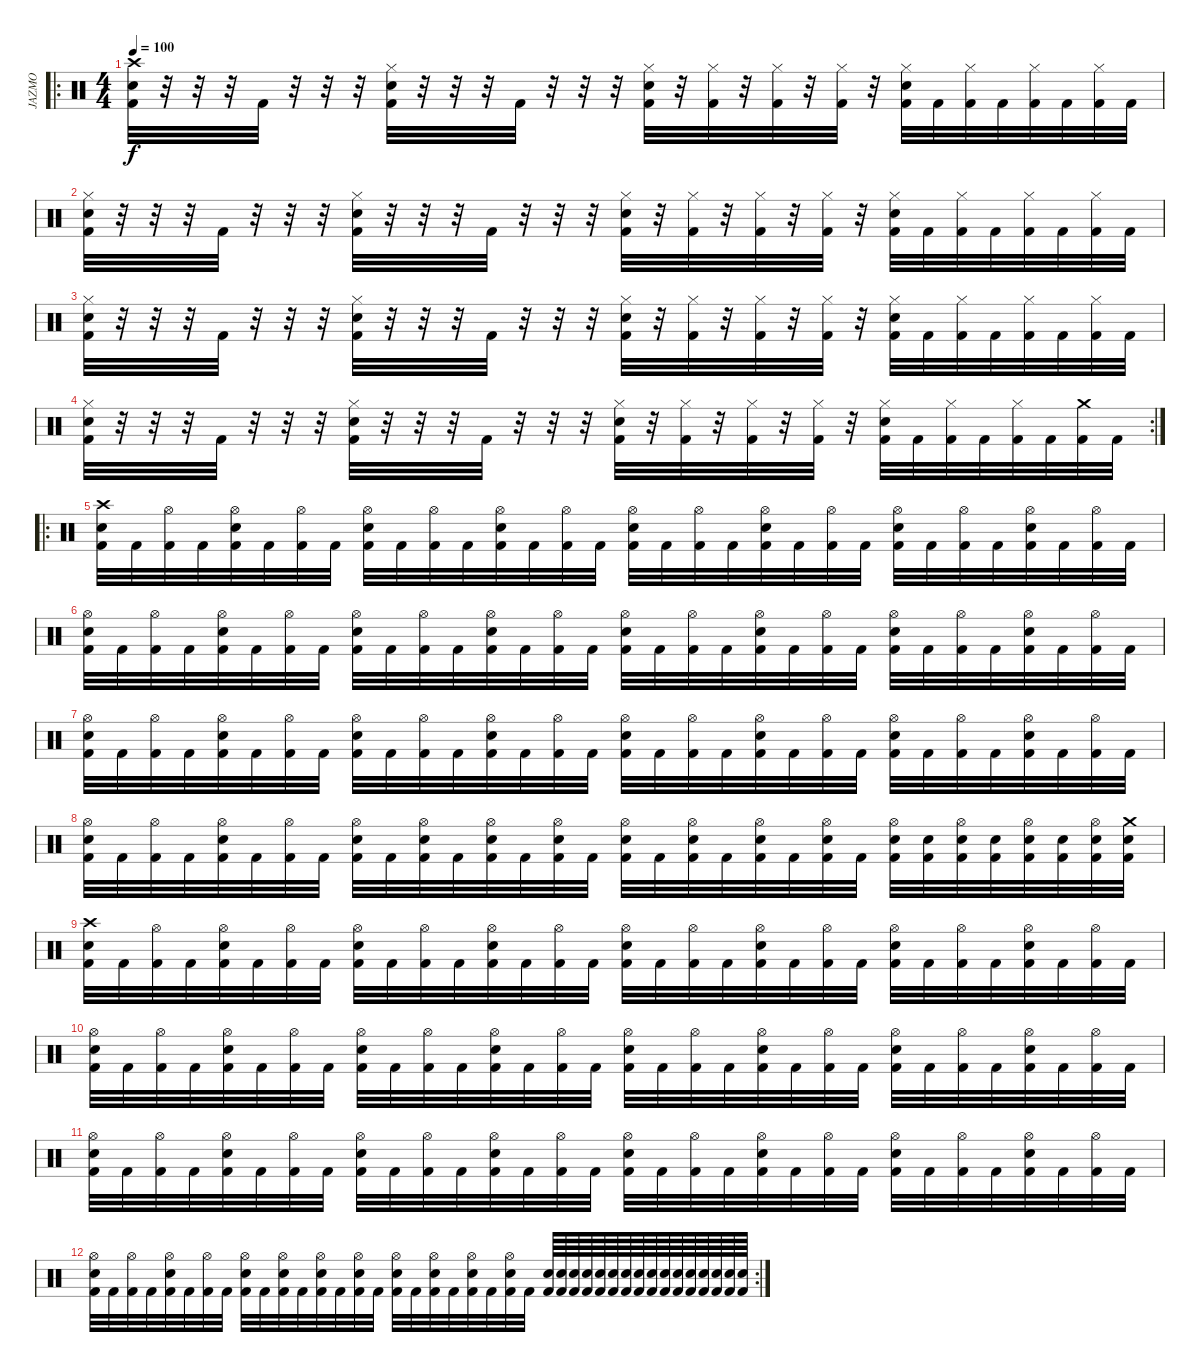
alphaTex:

\track ("JAZMO" "JAZMO") {instrument percussion}
\staff {score}
\articulation defaults
\ro
\ts (4 4)
\tempo 100
\clef neutral
\ks c
("Crash high (hit)" "Electric Snare (hit)" "Kick (hit) 2").32{dy f} r.32 r.32 r.32 "Kick (hit) 2".32 r.32 r.32 r.32 ("Hi-Hat (closed)" "Electric Snare (hit)" "Kick (hit) 2").32 r.32 r.32 r.32 "Kick (hit) 2".32 r.32 r.32 r.32 ("Hi-Hat (closed)" "Electric Snare (hit)" "Kick (hit) 2").32 r.32 ("Hi-Hat (closed)" "Kick (hit) 2").32 r.32 ("Hi-Hat (closed)" "Kick (hit) 2").32 r.32 ("Hi-Hat (closed)" "Kick (hit) 2").32 r.32 ("Hi-Hat (closed)" "Electric Snare (hit)" "Kick (hit) 2").32 "Kick (hit) 2".32 ("Hi-Hat (closed)" "Kick (hit) 2").32 "Kick (hit) 2".32 ("Hi-Hat (closed)" "Kick (hit) 2").32 "Kick (hit) 2".32 ("Hi-Hat (closed)" "Kick (hit) 2").32 "Kick (hit) 2".32 |
("Hi-Hat (closed)" "Electric Snare (hit)" "Kick (hit) 2").32 r.32 r.32 r.32 "Kick (hit) 2".32 r.32 r.32 r.32 ("Hi-Hat (closed)" "Electric Snare (hit)" "Kick (hit) 2").32 r.32 r.32 r.32 "Kick (hit) 2".32 r.32 r.32 r.32 ("Hi-Hat (closed)" "Electric Snare (hit)" "Kick (hit) 2").32 r.32 ("Hi-Hat (closed)" "Kick (hit) 2").32 r.32 ("Hi-Hat (closed)" "Kick (hit) 2").32 r.32 ("Hi-Hat (closed)" "Kick (hit) 2").32 r.32 ("Hi-Hat (closed)" "Electric Snare (hit)" "Kick (hit) 2").32 "Kick (hit) 2".32 ("Hi-Hat (closed)" "Kick (hit) 2").32 "Kick (hit) 2".32 ("Hi-Hat (closed)" "Kick (hit) 2").32 "Kick (hit) 2".32 ("Hi-Hat (closed)" "Kick (hit) 2").32 "Kick (hit) 2".32 |
("Hi-Hat (closed)" "Electric Snare (hit)" "Kick (hit) 2").32 r.32 r.32 r.32 "Kick (hit) 2".32 r.32 r.32 r.32 ("Hi-Hat (closed)" "Electric Snare (hit)" "Kick (hit) 2").32 r.32 r.32 r.32 "Kick (hit) 2".32 r.32 r.32 r.32 ("Hi-Hat (closed)" "Electric Snare (hit)" "Kick (hit) 2").32 r.32 ("Hi-Hat (closed)" "Kick (hit) 2").32 r.32 ("Hi-Hat (closed)" "Kick (hit) 2").32 r.32 ("Hi-Hat (closed)" "Kick (hit) 2").32 r.32 ("Hi-Hat (closed)" "Electric Snare (hit)" "Kick (hit) 2").32 "Kick (hit) 2".32 ("Hi-Hat (closed)" "Kick (hit) 2").32 "Kick (hit) 2".32 ("Hi-Hat (closed)" "Kick (hit) 2").32 "Kick (hit) 2".32 ("Hi-Hat (closed)" "Kick (hit) 2").32 "Kick (hit) 2".32 |
\rc 2
("Hi-Hat (closed)" "Electric Snare (hit)" "Kick (hit) 2").32 r.32 r.32 r.32 "Kick (hit) 2".32 r.32 r.32 r.32 ("Hi-Hat (closed)" "Electric Snare (hit)" "Kick (hit) 2").32 r.32 r.32 r.32 "Kick (hit) 2".32 r.32 r.32 r.32 ("Hi-Hat (closed)" "Electric Snare (hit)" "Kick (hit) 2").32 r.32 ("Hi-Hat (closed)" "Kick (hit) 2").32 r.32 ("Hi-Hat (closed)" "Kick (hit) 2").32 r.32 ("Hi-Hat (closed)" "Kick (hit) 2").32 r.32 ("Hi-Hat (closed)" "Electric Snare (hit)" "Kick (hit) 2").32 "Kick (hit) 2".32 ("Hi-Hat (closed)" "Kick (hit) 2").32 "Kick (hit) 2".32 ("Hi-Hat (closed)" "Kick (hit) 2").32 "Kick (hit) 2".32 ("Crash medium (hit)" "Kick (hit) 2").32 "Kick (hit) 2".32 |
\ro
("Crash high (hit)" "Electric Snare (hit)" "Kick (hit) 2").32 "Kick (hit) 2".32 ("Hi-Hat (open)" "Kick (hit) 2").32 "Kick (hit) 2".32 ("Hi-Hat (open)" "Electric Snare (hit)" "Kick (hit) 2").32 "Kick (hit) 2".32 ("Hi-Hat (open)" "Kick (hit) 2").32 "Kick (hit) 2".32 ("Hi-Hat (open)" "Electric Snare (hit)" "Kick (hit) 2").32 "Kick (hit) 2".32 ("Hi-Hat (open)" "Kick (hit) 2").32 "Kick (hit) 2".32 ("Hi-Hat (open)" "Electric Snare (hit)" "Kick (hit) 2").32 "Kick (hit) 2".32 ("Hi-Hat (open)" "Kick (hit) 2").32 "Kick (hit) 2".32 ("Hi-Hat (open)" "Electric Snare (hit)" "Kick (hit) 2").32 "Kick (hit) 2".32 ("Hi-Hat (open)" "Kick (hit) 2").32 "Kick (hit) 2".32 ("Hi-Hat (open)" "Electric Snare (hit)" "Kick (hit) 2").32 "Kick (hit) 2".32 ("Hi-Hat (open)" "Kick (hit) 2").32 "Kick (hit) 2".32 ("Hi-Hat (open)" "Electric Snare (hit)" "Kick (hit) 2").32 "Kick (hit) 2".32 ("Hi-Hat (open)" "Kick (hit) 2").32 "Kick (hit) 2".32 ("Hi-Hat (open)" "Electric Snare (hit)" "Kick (hit) 2").32 "Kick (hit) 2".32 ("Hi-Hat (open)" "Kick (hit) 2").32 "Kick (hit) 2".32 |
("Hi-Hat (open)" "Electric Snare (hit)" "Kick (hit) 2").32 "Kick (hit) 2".32 ("Hi-Hat (open)" "Kick (hit) 2").32 "Kick (hit) 2".32 ("Hi-Hat (open)" "Electric Snare (hit)" "Kick (hit) 2").32 "Kick (hit) 2".32 ("Hi-Hat (open)" "Kick (hit) 2").32 "Kick (hit) 2".32 ("Hi-Hat (open)" "Electric Snare (hit)" "Kick (hit) 2").32 "Kick (hit) 2".32 ("Hi-Hat (open)" "Kick (hit) 2").32 "Kick (hit) 2".32 ("Hi-Hat (open)" "Electric Snare (hit)" "Kick (hit) 2").32 "Kick (hit) 2".32 ("Hi-Hat (open)" "Kick (hit) 2").32 "Kick (hit) 2".32 ("Hi-Hat (open)" "Electric Snare (hit)" "Kick (hit) 2").32 "Kick (hit) 2".32 ("Hi-Hat (open)" "Kick (hit) 2").32 "Kick (hit) 2".32 ("Hi-Hat (open)" "Electric Snare (hit)" "Kick (hit) 2").32 "Kick (hit) 2".32 ("Hi-Hat (open)" "Kick (hit) 2").32 "Kick (hit) 2".32 ("Hi-Hat (open)" "Electric Snare (hit)" "Kick (hit) 2").32 "Kick (hit) 2".32 ("Hi-Hat (open)" "Kick (hit) 2").32 "Kick (hit) 2".32 ("Hi-Hat (open)" "Electric Snare (hit)" "Kick (hit) 2").32 "Kick (hit) 2".32 ("Hi-Hat (open)" "Kick (hit) 2").32 "Kick (hit) 2".32 |
("Hi-Hat (open)" "Electric Snare (hit)" "Kick (hit) 2").32 "Kick (hit) 2".32 ("Hi-Hat (open)" "Kick (hit) 2").32 "Kick (hit) 2".32 ("Hi-Hat (open)" "Electric Snare (hit)" "Kick (hit) 2").32 "Kick (hit) 2".32 ("Hi-Hat (open)" "Kick (hit) 2").32 "Kick (hit) 2".32 ("Hi-Hat (open)" "Electric Snare (hit)" "Kick (hit) 2").32 "Kick (hit) 2".32 ("Hi-Hat (open)" "Kick (hit) 2").32 "Kick (hit) 2".32 ("Hi-Hat (open)" "Electric Snare (hit)" "Kick (hit) 2").32 "Kick (hit) 2".32 ("Hi-Hat (open)" "Kick (hit) 2").32 "Kick (hit) 2".32 ("Hi-Hat (open)" "Electric Snare (hit)" "Kick (hit) 2").32 "Kick (hit) 2".32 ("Hi-Hat (open)" "Kick (hit) 2").32 "Kick (hit) 2".32 ("Hi-Hat (open)" "Electric Snare (hit)" "Kick (hit) 2").32 "Kick (hit) 2".32 ("Hi-Hat (open)" "Kick (hit) 2").32 "Kick (hit) 2".32 ("Hi-Hat (open)" "Electric Snare (hit)" "Kick (hit) 2").32 "Kick (hit) 2".32 ("Hi-Hat (open)" "Kick (hit) 2").32 "Kick (hit) 2".32 ("Hi-Hat (open)" "Electric Snare (hit)" "Kick (hit) 2").32 "Kick (hit) 2".32 ("Hi-Hat (open)" "Kick (hit) 2").32 "Kick (hit) 2".32 |
("Hi-Hat (open)" "Electric Snare (hit)" "Kick (hit) 2").32 "Kick (hit) 2".32 ("Hi-Hat (open)" "Kick (hit) 2").32 "Kick (hit) 2".32 ("Hi-Hat (open)" "Electric Snare (hit)" "Kick (hit) 2").32 "Kick (hit) 2".32 ("Hi-Hat (open)" "Kick (hit) 2").32 "Kick (hit) 2".32 ("Hi-Hat (open)" "Electric Snare (hit)" "Kick (hit) 2").32 "Kick (hit) 2".32 ("Hi-Hat (open)" "Electric Snare (hit)" "Kick (hit) 2").32 "Kick (hit) 2".32 ("Hi-Hat (open)" "Electric Snare (hit)" "Kick (hit) 2").32 "Kick (hit) 2".32 ("Hi-Hat (open)" "Electric Snare (hit)" "Kick (hit) 2").32 "Kick (hit) 2".32 ("Hi-Hat (open)" "Electric Snare (hit)" "Kick (hit) 2").32 "Kick (hit) 2".32 ("Hi-Hat (open)" "Electric Snare (hit)" "Kick (hit) 2").32 "Kick (hit) 2".32 ("Hi-Hat (open)" "Electric Snare (hit)" "Kick (hit) 2").32 "Kick (hit) 2".32 ("Hi-Hat (open)" "Electric Snare (hit)" "Kick (hit) 2").32 "Kick (hit) 2".32 ("Hi-Hat (open)" "Electric Snare (hit)" "Kick (hit) 2").32 ("Electric Snare (hit)" "Kick (hit) 2").32 ("Hi-Hat (open)" "Electric Snare (hit)" "Kick (hit) 2").32 ("Electric Snare (hit)" "Kick (hit) 2").32 ("Hi-Hat (open)" "Electric Snare (hit)" "Kick (hit) 2").32 ("Electric Snare (hit)" "Kick (hit) 2").32 ("Hi-Hat (open)" "Electric Snare (hit)" "Kick (hit) 2").32 ("Crash medium (hit)" "Electric Snare (hit)" "Kick (hit) 2").32 |
("Crash high (hit)" "Electric Snare (hit)" "Kick (hit) 2").32 "Kick (hit) 2".32 ("Hi-Hat (open)" "Kick (hit) 2").32 "Kick (hit) 2".32 ("Hi-Hat (open)" "Electric Snare (hit)" "Kick (hit) 2").32 "Kick (hit) 2".32 ("Hi-Hat (open)" "Kick (hit) 2").32 "Kick (hit) 2".32 ("Hi-Hat (open)" "Electric Snare (hit)" "Kick (hit) 2").32 "Kick (hit) 2".32 ("Hi-Hat (open)" "Kick (hit) 2").32 "Kick (hit) 2".32 ("Hi-Hat (open)" "Electric Snare (hit)" "Kick (hit) 2").32 "Kick (hit) 2".32 ("Hi-Hat (open)" "Kick (hit) 2").32 "Kick (hit) 2".32 ("Hi-Hat (open)" "Electric Snare (hit)" "Kick (hit) 2").32 "Kick (hit) 2".32 ("Hi-Hat (open)" "Kick (hit) 2").32 "Kick (hit) 2".32 ("Hi-Hat (open)" "Electric Snare (hit)" "Kick (hit) 2").32 "Kick (hit) 2".32 ("Hi-Hat (open)" "Kick (hit) 2").32 "Kick (hit) 2".32 ("Hi-Hat (open)" "Electric Snare (hit)" "Kick (hit) 2").32 "Kick (hit) 2".32 ("Hi-Hat (open)" "Kick (hit) 2").32 "Kick (hit) 2".32 ("Hi-Hat (open)" "Electric Snare (hit)" "Kick (hit) 2").32 "Kick (hit) 2".32 ("Hi-Hat (open)" "Kick (hit) 2").32 "Kick (hit) 2".32 |
("Hi-Hat (open)" "Electric Snare (hit)" "Kick (hit) 2").32 "Kick (hit) 2".32 ("Hi-Hat (open)" "Kick (hit) 2").32 "Kick (hit) 2".32 ("Hi-Hat (open)" "Electric Snare (hit)" "Kick (hit) 2").32 "Kick (hit) 2".32 ("Hi-Hat (open)" "Kick (hit) 2").32 "Kick (hit) 2".32 ("Hi-Hat (open)" "Electric Snare (hit)" "Kick (hit) 2").32 "Kick (hit) 2".32 ("Hi-Hat (open)" "Kick (hit) 2").32 "Kick (hit) 2".32 ("Hi-Hat (open)" "Electric Snare (hit)" "Kick (hit) 2").32 "Kick (hit) 2".32 ("Hi-Hat (open)" "Kick (hit) 2").32 "Kick (hit) 2".32 ("Hi-Hat (open)" "Electric Snare (hit)" "Kick (hit) 2").32 "Kick (hit) 2".32 ("Hi-Hat (open)" "Kick (hit) 2").32 "Kick (hit) 2".32 ("Hi-Hat (open)" "Electric Snare (hit)" "Kick (hit) 2").32 "Kick (hit) 2".32 ("Hi-Hat (open)" "Kick (hit) 2").32 "Kick (hit) 2".32 ("Hi-Hat (open)" "Electric Snare (hit)" "Kick (hit) 2").32 "Kick (hit) 2".32 ("Hi-Hat (open)" "Kick (hit) 2").32 "Kick (hit) 2".32 ("Hi-Hat (open)" "Electric Snare (hit)" "Kick (hit) 2").32 "Kick (hit) 2".32 ("Hi-Hat (open)" "Kick (hit) 2").32 "Kick (hit) 2".32 |
("Hi-Hat (open)" "Electric Snare (hit)" "Kick (hit) 2").32 "Kick (hit) 2".32 ("Hi-Hat (open)" "Kick (hit) 2").32 "Kick (hit) 2".32 ("Hi-Hat (open)" "Electric Snare (hit)" "Kick (hit) 2").32 "Kick (hit) 2".32 ("Hi-Hat (open)" "Kick (hit) 2").32 "Kick (hit) 2".32 ("Hi-Hat (open)" "Electric Snare (hit)" "Kick (hit) 2").32 "Kick (hit) 2".32 ("Hi-Hat (open)" "Kick (hit) 2").32 "Kick (hit) 2".32 ("Hi-Hat (open)" "Electric Snare (hit)" "Kick (hit) 2").32 "Kick (hit) 2".32 ("Hi-Hat (open)" "Kick (hit) 2").32 "Kick (hit) 2".32 ("Hi-Hat (open)" "Electric Snare (hit)" "Kick (hit) 2").32 "Kick (hit) 2".32 ("Hi-Hat (open)" "Kick (hit) 2").32 "Kick (hit) 2".32 ("Hi-Hat (open)" "Electric Snare (hit)" "Kick (hit) 2").32 "Kick (hit) 2".32 ("Hi-Hat (open)" "Kick (hit) 2").32 "Kick (hit) 2".32 ("Hi-Hat (open)" "Electric Snare (hit)" "Kick (hit) 2").32 "Kick (hit) 2".32 ("Hi-Hat (open)" "Kick (hit) 2").32 "Kick (hit) 2".32 ("Hi-Hat (open)" "Electric Snare (hit)" "Kick (hit) 2").32 "Kick (hit) 2".32 ("Hi-Hat (open)" "Kick (hit) 2").32 "Kick (hit) 2".32 |
\rc 2
("Hi-Hat (open)" "Electric Snare (hit)" "Kick (hit) 2").32 "Kick (hit) 2".32 ("Hi-Hat (open)" "Kick (hit) 2").32 "Kick (hit) 2".32 ("Hi-Hat (open)" "Electric Snare (hit)" "Kick (hit) 2").32 "Kick (hit) 2".32 ("Hi-Hat (open)" "Kick (hit) 2").32 "Kick (hit) 2".32 ("Hi-Hat (open)" "Electric Snare (hit)" "Kick (hit) 2").32 "Kick (hit) 2".32 ("Hi-Hat (open)" "Electric Snare (hit)" "Kick (hit) 2").32 "Kick (hit) 2".32 ("Hi-Hat (open)" "Electric Snare (hit)" "Kick (hit) 2").32 "Kick (hit) 2".32 ("Hi-Hat (open)" "Electric Snare (hit)" "Kick (hit) 2").32 "Kick (hit) 2".32 ("Hi-Hat (open)" "Electric Snare (hit)" "Kick (hit) 2").32 "Kick (hit) 2".32 ("Hi-Hat (open)" "Electric Snare (hit)" "Kick (hit) 2").32 "Kick (hit) 2".32 ("Hi-Hat (open)" "Electric Snare (hit)" "Kick (hit) 2").32 "Kick (hit) 2".32 ("Hi-Hat (open)" "Electric Snare (hit)" "Kick (hit) 2").32 "Kick (hit) 2".32 ("Electric Snare (hit)" "Kick (hit) 2").64 ("Electric Snare (hit)" "Kick (hit) 2").64 ("Electric Snare (hit)" "Kick (hit) 2").64 ("Electric Snare (hit)" "Kick (hit) 2").64 ("Electric Snare (hit)" "Kick (hit) 2").64 ("Electric Snare (hit)" "Kick (hit) 2").64 ("Electric Snare (hit)" "Kick (hit) 2").64 ("Electric Snare (hit)" "Kick (hit) 2").64 ("Electric Snare (hit)" "Kick (hit) 2").64 ("Electric Snare (hit)" "Kick (hit) 2").64 ("Electric Snare (hit)" "Kick (hit) 2").64 ("Electric Snare (hit)" "Kick (hit) 2").64 ("Electric Snare (hit)" "Kick (hit) 2").64 ("Electric Snare (hit)" "Kick (hit) 2").64 ("Electric Snare (hit)" "Kick (hit) 2").64 ("Electric Snare (hit)" "Kick (hit) 2").64
